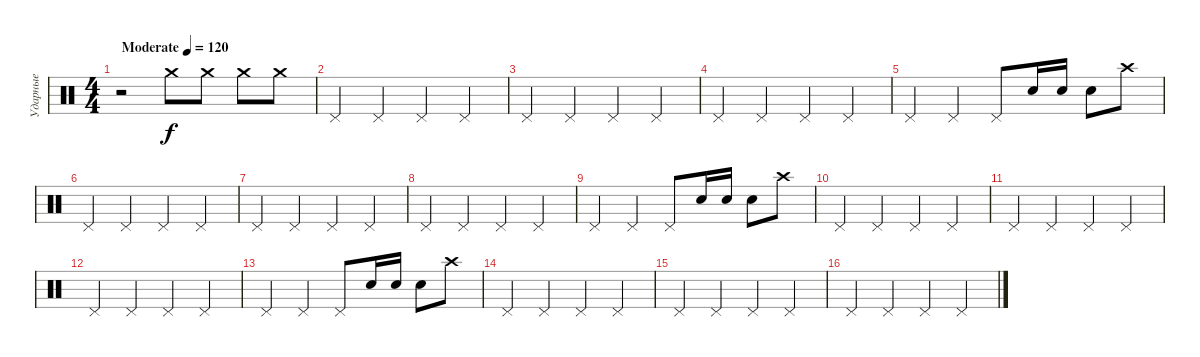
\track ("Ударные" "Ударные") {instrument percussion}
\staff {score}
\articulation defaults
\ts (4 4)
\tempo (120 "Moderate")
\clef neutral
\ks c
r.2{dy f} "Crash medium (hit)".8 "Crash medium (hit)".8 "Crash medium (hit)".8 "Crash medium (hit)".8 |
"Pedal Hi-Hat (hit)".4 "Pedal Hi-Hat (hit)".4 "Pedal Hi-Hat (hit)".4 "Pedal Hi-Hat (hit)".4 |
"Pedal Hi-Hat (hit)".4 "Pedal Hi-Hat (hit)".4 "Pedal Hi-Hat (hit)".4 "Pedal Hi-Hat (hit)".4 |
"Pedal Hi-Hat (hit)".4 "Pedal Hi-Hat (hit)".4 "Pedal Hi-Hat (hit)".4 "Pedal Hi-Hat (hit)".4 |
"Pedal Hi-Hat (hit)".4 "Pedal Hi-Hat (hit)".4 "Pedal Hi-Hat (hit)".8 "Snare (hit) 2".16 "Snare (hit) 2".16 "Snare (hit) 2".8 "Crash high (hit)".8 |
"Pedal Hi-Hat (hit)".4 "Pedal Hi-Hat (hit)".4 "Pedal Hi-Hat (hit)".4 "Pedal Hi-Hat (hit)".4 |
"Pedal Hi-Hat (hit)".4 "Pedal Hi-Hat (hit)".4 "Pedal Hi-Hat (hit)".4 "Pedal Hi-Hat (hit)".4 |
"Pedal Hi-Hat (hit)".4 "Pedal Hi-Hat (hit)".4 "Pedal Hi-Hat (hit)".4 "Pedal Hi-Hat (hit)".4 |
"Pedal Hi-Hat (hit)".4 "Pedal Hi-Hat (hit)".4 "Pedal Hi-Hat (hit)".8 "Snare (hit) 2".16 "Snare (hit) 2".16 "Snare (hit) 2".8 "Crash high (hit)".8 |
"Pedal Hi-Hat (hit)".4 "Pedal Hi-Hat (hit)".4 "Pedal Hi-Hat (hit)".4 "Pedal Hi-Hat (hit)".4 |
"Pedal Hi-Hat (hit)".4 "Pedal Hi-Hat (hit)".4 "Pedal Hi-Hat (hit)".4 "Pedal Hi-Hat (hit)".4 |
"Pedal Hi-Hat (hit)".4 "Pedal Hi-Hat (hit)".4 "Pedal Hi-Hat (hit)".4 "Pedal Hi-Hat (hit)".4 |
"Pedal Hi-Hat (hit)".4 "Pedal Hi-Hat (hit)".4 "Pedal Hi-Hat (hit)".8 "Snare (hit) 2".16 "Snare (hit) 2".16 "Snare (hit) 2".8 "Crash high (hit)".8 |
"Pedal Hi-Hat (hit)".4 "Pedal Hi-Hat (hit)".4 "Pedal Hi-Hat (hit)".4 "Pedal Hi-Hat (hit)".4 |
"Pedal Hi-Hat (hit)".4 "Pedal Hi-Hat (hit)".4 "Pedal Hi-Hat (hit)".4 "Pedal Hi-Hat (hit)".4 |
"Pedal Hi-Hat (hit)".4 "Pedal Hi-Hat (hit)".4 "Pedal Hi-Hat (hit)".4 "Pedal Hi-Hat (hit)".4
